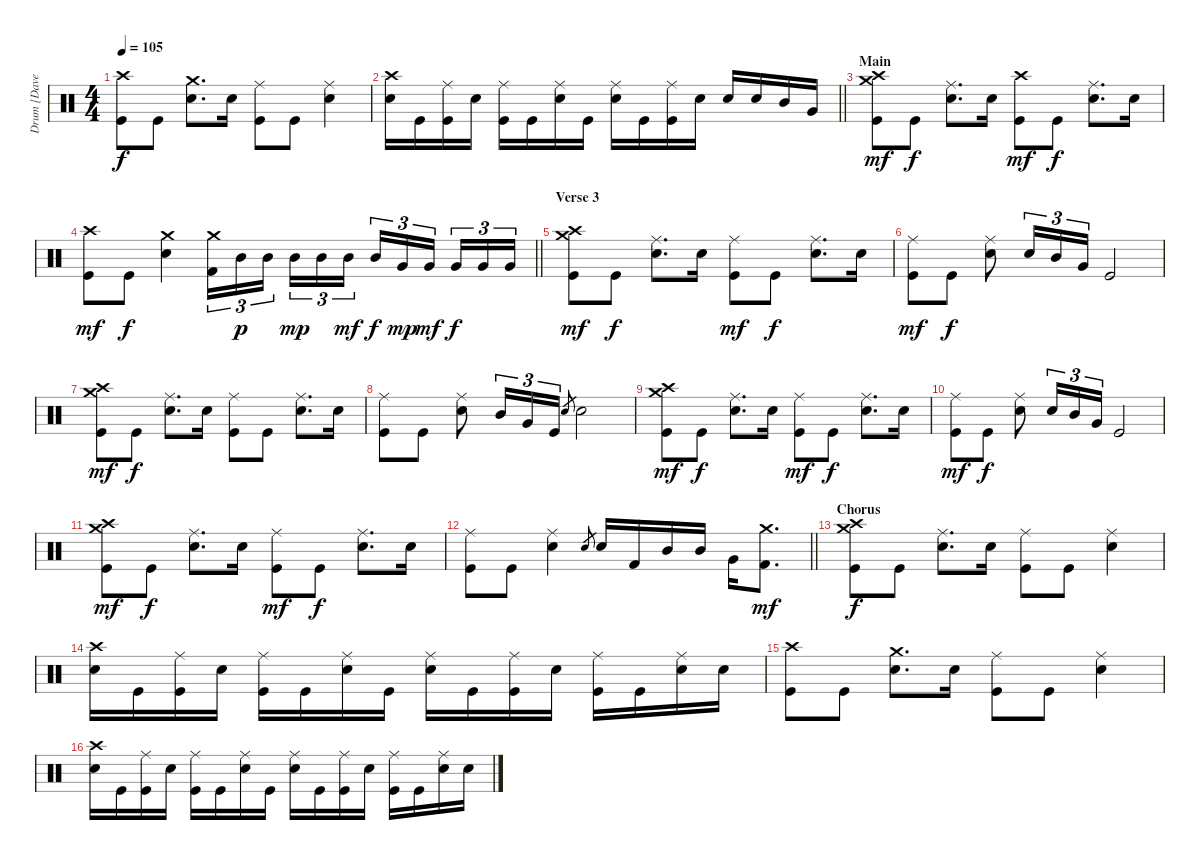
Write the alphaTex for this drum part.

\track ("Drum [Dave Grohl]" "Drum [Dave") {instrument percussion bank 84}
\staff {score}
\articulation defaults
\ts (4 4)
\tempo 105
\clef neutral
\ks c
("Crash high (hit)" "Kick (hit)").8{dy f} "Kick (hit)".8 ("Crash medium (hit)" "Electric Snare (hit)").8{d} "Electric Snare (hit)".16 ("Ride (middle)" "Kick (hit)").8 "Kick (hit)".8 ("Ride (middle)" "Electric Snare (hit)").4 |
\barLineRight lightlight
("Crash high (hit)" "Electric Snare (hit)").16 "Kick (hit)".16 ("Ride (middle)" "Kick (hit)").16 "Electric Snare (hit)".16 ("Ride (middle)" "Kick (hit)").16 "Kick (hit)".16 ("Ride (middle)" "Electric Snare (hit)").16 "Kick (hit)".16 ("Ride (middle)" "Electric Snare (hit)").16 "Kick (hit)".16 ("Ride (middle)" "Kick (hit)").16 "Electric Snare (hit)".16 "Electric Snare (hit)".16 "Electric Snare (hit)".16 "Mid Tom (hit)".16 "Very Low Tom (hit)".16 |
\section ("" "Main")
("Crash high (hit)" "Crash medium (hit)" "Kick (hit)").8{dy mf} "Kick (hit)".8{dy f} ("Ride (middle)" "Electric Snare (hit)").8{d} "Electric Snare (hit)".16 ("Crash high (hit)" "Kick (hit)").8{dy mf} "Kick (hit)".8{dy f} ("Ride (middle)" "Electric Snare (hit)").8{d} "Electric Snare (hit)".16 |
\barLineRight lightlight
("Crash high (hit)" "Kick (hit)").8{dy mf} "Kick (hit)".8{dy f} ("Crash medium (hit)" "Electric Snare (hit)").4 ("Crash medium (hit)" "Kick (hit) 2").16{tu (3 2)} "Mid Tom (hit)".16{tu (3 2) dy p} "Mid Tom (hit)".16{tu (3 2) beam splitsecondary} "Mid Tom (hit)".16{tu (3 2) dy mp} "Mid Tom (hit)".16{tu (3 2)} "Mid Tom (hit)".16{tu (3 2) dy mf} "Mid Tom (hit)".16{tu (3 2) dy f} "Very Low Tom (hit)".16{tu (3 2) dy mp} "Very Low Tom (hit)".16{tu (3 2) dy mf beam splitsecondary} "Very Low Tom (hit)".16{tu (3 2) dy f} "Very Low Tom (hit)".16{tu (3 2)} "Very Low Tom (hit)".16{tu (3 2)} |
\section ("" "Verse 3")
("Crash high (hit)" "Crash medium (hit)" "Kick (hit)").8{dy mf} "Kick (hit)".8{dy f} ("Ride (middle)" "Electric Snare (hit)").8{d} "Electric Snare (hit)".16 ("Ride (middle)" "Kick (hit)").8{dy mf} "Kick (hit)".8{dy f} ("Ride (middle)" "Electric Snare (hit)").8{d} "Electric Snare (hit)".16 |
("Ride (middle)" "Kick (hit)").8{dy mf} "Kick (hit)".8{dy f} ("Ride (middle)" "Electric Snare (hit)").8 "Electric Snare (hit)".16{tu (3 2)} "Mid Tom (hit)".16{tu (3 2)} "Very Low Tom (hit)".16{tu (3 2)} "Kick (hit)".2 |
("Crash high (hit)" "Crash medium (hit)" "Kick (hit)").8{dy mf} "Kick (hit)".8{dy f} ("Ride (middle)" "Electric Snare (hit)").8{d} "Electric Snare (hit)".16 ("Ride (middle)" "Kick (hit)").8 "Kick (hit)".8 ("Ride (middle)" "Electric Snare (hit)").8{d} "Electric Snare (hit)".16 |
("Ride (middle)" "Kick (hit)").8 "Kick (hit)".8 ("Ride (middle)" "Electric Snare (hit)").8 "Mid Tom (hit)".16{tu (3 2)} "Very Low Tom (hit)".16{tu (3 2)} "Kick (hit)".16{tu (3 2)} "Electric Snare (hit)".8{gr} "Electric Snare (hit)".2 |
("Crash high (hit)" "Crash medium (hit)" "Kick (hit)").8{dy mf} "Kick (hit)".8{dy f} ("Ride (middle)" "Electric Snare (hit)").8{d} "Electric Snare (hit)".16 ("Ride (middle)" "Kick (hit)").8{dy mf} "Kick (hit)".8{dy f} ("Ride (middle)" "Electric Snare (hit)").8{d} "Electric Snare (hit)".16 |
("Ride (middle)" "Kick (hit)").8{dy mf} "Kick (hit)".8{dy f} ("Ride (middle)" "Electric Snare (hit)").8 "Electric Snare (hit)".16{tu (3 2)} "Mid Tom (hit)".16{tu (3 2)} "Very Low Tom (hit)".16{tu (3 2)} "Kick (hit)".2 |
("Crash high (hit)" "Crash medium (hit)" "Kick (hit)").8{dy mf} "Kick (hit)".8{dy f} ("Ride (middle)" "Electric Snare (hit)").8{d} "Electric Snare (hit)".16 ("Ride (middle)" "Kick (hit)").8{dy mf} "Kick (hit)".8{dy f} ("Ride (middle)" "Electric Snare (hit)").8{d} "Electric Snare (hit)".16 |
\barLineRight lightlight
("Ride (middle)" "Kick (hit)").8 "Kick (hit)".8 ("Ride (middle)" "Electric Snare (hit)").4 "Electric Snare (hit)".8{gr} "Electric Snare (hit)".16 "Kick (hit) 2".16 "Mid Tom (hit)".16 "Mid Tom (hit)".16 "Very Low Tom (hit)".16 ("Crash medium (hit)" "Kick (hit) 2").8{d dy mf} |
\section ("" "Chorus")
("Crash high (hit)" "Crash medium (hit)" "Kick (hit)").8{dy f} "Kick (hit)".8 ("Ride (middle)" "Electric Snare (hit)").8{d} "Electric Snare (hit)".16 ("Ride (middle)" "Kick (hit)").8 "Kick (hit)".8 ("Ride (middle)" "Electric Snare (hit)").4 |
("Crash high (hit)" "Electric Snare (hit)").16 "Kick (hit)".16 ("Ride (middle)" "Kick (hit)").16 "Electric Snare (hit)".16 ("Ride (middle)" "Kick (hit)").16 "Kick (hit)".16 ("Ride (middle)" "Electric Snare (hit)").16 "Kick (hit)".16 ("Ride (middle)" "Electric Snare (hit)").16 "Kick (hit)".16 ("Ride (middle)" "Kick (hit)").16 "Electric Snare (hit)".16 ("Ride (middle)" "Kick (hit)").16 "Kick (hit)".16 ("Ride (middle)" "Electric Snare (hit)").16 "Electric Snare (hit)".16 |
("Crash high (hit)" "Kick (hit)").8 "Kick (hit)".8 ("Crash medium (hit)" "Electric Snare (hit)").8{d} "Electric Snare (hit)".16 ("Ride (middle)" "Kick (hit)").8 "Kick (hit)".8 ("Ride (middle)" "Electric Snare (hit)").4 |
("Crash high (hit)" "Electric Snare (hit)").16 "Kick (hit)".16 ("Ride (middle)" "Kick (hit)").16 "Electric Snare (hit)".16 ("Ride (middle)" "Kick (hit)").16 "Kick (hit)".16 ("Ride (middle)" "Electric Snare (hit)").16 "Kick (hit)".16 ("Ride (middle)" "Electric Snare (hit)").16 "Kick (hit)".16 ("Ride (middle)" "Kick (hit)").16 "Electric Snare (hit)".16 ("Ride (middle)" "Kick (hit)").16 "Kick (hit)".16 ("Ride (middle)" "Electric Snare (hit)").16 "Electric Snare (hit)".16
